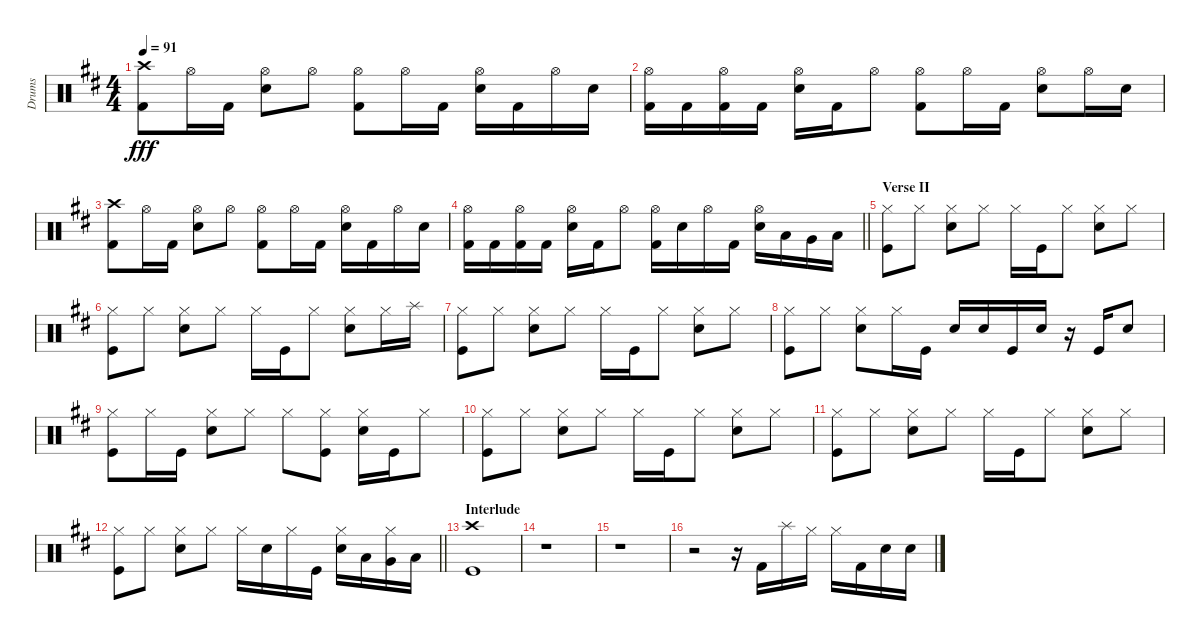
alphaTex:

\track ("Drums" "Drums") {instrument percussion}
\staff {score}
\articulation defaults
\ts (4 4)
\tempo 91
\clef neutral
\ks d
("Crash high (hit)" "Kick (hit) 2").8{dy fff} "Hi-Hat (open)".16 "Kick (hit) 2".16 ("Hi-Hat (open)" "Snare (hit) 2").8 "Hi-Hat (open)".8 ("Hi-Hat (open)" "Kick (hit) 2").8 "Hi-Hat (open)".16 "Kick (hit) 2".16 ("Hi-Hat (open)" "Snare (hit) 2").16 "Kick (hit) 2".16 "Hi-Hat (open)".16 "Snare (hit) 2".16 |
("Hi-Hat (open)" "Kick (hit) 2").16 "Kick (hit) 2".16 ("Hi-Hat (open)" "Kick (hit) 2").16 "Kick (hit) 2".16 ("Hi-Hat (open)" "Snare (hit) 2").16 "Kick (hit) 2".16 "Hi-Hat (open)".8 ("Hi-Hat (open)" "Kick (hit) 2").8 "Hi-Hat (open)".16 "Kick (hit) 2".16 ("Hi-Hat (open)" "Snare (hit) 2").8 "Hi-Hat (open)".16 "Snare (hit) 2".16 |
("Crash high (hit)" "Kick (hit) 2").8 "Hi-Hat (open)".16 "Kick (hit) 2".16 ("Hi-Hat (open)" "Snare (hit) 2").8 "Hi-Hat (open)".8 ("Hi-Hat (open)" "Kick (hit) 2").8 "Hi-Hat (open)".16 "Kick (hit) 2".16 ("Hi-Hat (open)" "Snare (hit) 2").16 "Kick (hit) 2".16 "Hi-Hat (open)".16 "Snare (hit) 2".16 |
\barLineRight lightlight
("Hi-Hat (open)" "Kick (hit) 2").16 "Kick (hit) 2".16 ("Hi-Hat (open)" "Kick (hit) 2").16 "Kick (hit) 2".16 ("Hi-Hat (open)" "Snare (hit) 2").16 "Kick (hit) 2".16 "Hi-Hat (open)".8 ("Hi-Hat (open)" "Kick (hit) 2").16 "Snare (hit) 2".16 "Hi-Hat (open)".16 "Kick (hit) 2".16 ("Hi-Hat (open)" "Snare (hit) 2").16 "Low Tom (hit)".16 "Very Low Tom (hit)".16 "Low Floor Tom (hit)".16 |
\section ("" "Verse II")
("Hi-Hat (closed)" "Kick (hit)").8 "Hi-Hat (closed)".8 ("Hi-Hat (closed)" "Snare (hit) 2").8 "Hi-Hat (closed)".8 "Hi-Hat (closed)".16 "Kick (hit)".16 "Hi-Hat (closed)".8 ("Hi-Hat (closed)" "Snare (hit) 2").8 "Hi-Hat (closed)".8 |
("Hi-Hat (closed)" "Kick (hit)").8 "Hi-Hat (closed)".8 ("Hi-Hat (closed)" "Snare (hit) 2").8 "Hi-Hat (closed)".8 "Hi-Hat (closed)".16 "Kick (hit)".16 "Hi-Hat (closed)".8 ("Hi-Hat (closed)" "Snare (hit) 2").8 "Hi-Hat (closed)".16 "Splash (hit)".16 |
("Hi-Hat (closed)" "Kick (hit)").8 "Hi-Hat (closed)".8 ("Hi-Hat (closed)" "Snare (hit) 2").8 "Hi-Hat (closed)".8 "Hi-Hat (closed)".16 "Kick (hit)".16 "Hi-Hat (closed)".8 ("Hi-Hat (closed)" "Snare (hit) 2").8 "Hi-Hat (closed)".8 |
("Hi-Hat (closed)" "Kick (hit)").8 "Hi-Hat (closed)".8 ("Hi-Hat (closed)" "Snare (hit) 2").8 "Hi-Hat (closed)".16 "Kick (hit)".16 "Snare (hit) 2".16 "Snare (hit) 2".16 "Kick (hit)".16 "Snare (hit) 2".16 r.16 "Kick (hit)".16 "Snare (hit) 2".8 |
("Hi-Hat (closed)" "Kick (hit)").8 "Hi-Hat (closed)".16 "Kick (hit)".16 ("Hi-Hat (closed)" "Snare (hit) 2").8 "Hi-Hat (closed)".8 "Hi-Hat (closed)".8 ("Hi-Hat (closed)" "Kick (hit)").8 ("Hi-Hat (closed)" "Snare (hit) 2").16 "Kick (hit)".16 "Hi-Hat (closed)".8 |
("Hi-Hat (closed)" "Kick (hit)").8 "Hi-Hat (closed)".8 ("Hi-Hat (closed)" "Snare (hit) 2").8 "Hi-Hat (closed)".8 "Hi-Hat (closed)".16 "Kick (hit)".16 "Hi-Hat (closed)".8 ("Hi-Hat (closed)" "Snare (hit) 2").8 "Hi-Hat (closed)".8 |
("Hi-Hat (closed)" "Kick (hit)").8 "Hi-Hat (closed)".8 ("Hi-Hat (closed)" "Snare (hit) 2").8 "Hi-Hat (closed)".8 "Hi-Hat (closed)".16 "Kick (hit)".16 "Hi-Hat (closed)".8 ("Hi-Hat (closed)" "Snare (hit) 2").8 "Hi-Hat (closed)".8 |
\barLineRight lightlight
("Hi-Hat (closed)" "Kick (hit)").8 "Hi-Hat (closed)".8 ("Hi-Hat (closed)" "Snare (hit) 2").8 "Hi-Hat (closed)".8 "Hi-Hat (closed)".16 "Snare (hit) 2".16 "Hi-Hat (closed)".16 "Kick (hit)".16 ("Hi-Hat (closed)" "Snare (hit) 2").16 "Low Tom (hit)".16 ("Hi-Hat (closed)" "Very Low Tom (hit)").16 "Low Floor Tom (hit)".16 |
\section ("" "Interlude")
("Crash high (hit)" "Kick (hit)").1 |
r.1 |
r.1 |
r.2 r.16 "Kick (hit) 2".16 "Splash (hit)".16 "Hi-Hat (closed)".16 "Hi-Hat (closed)".16 "Kick (hit) 2".16 "Snare (hit) 2".16 "Snare (hit) 2".16
